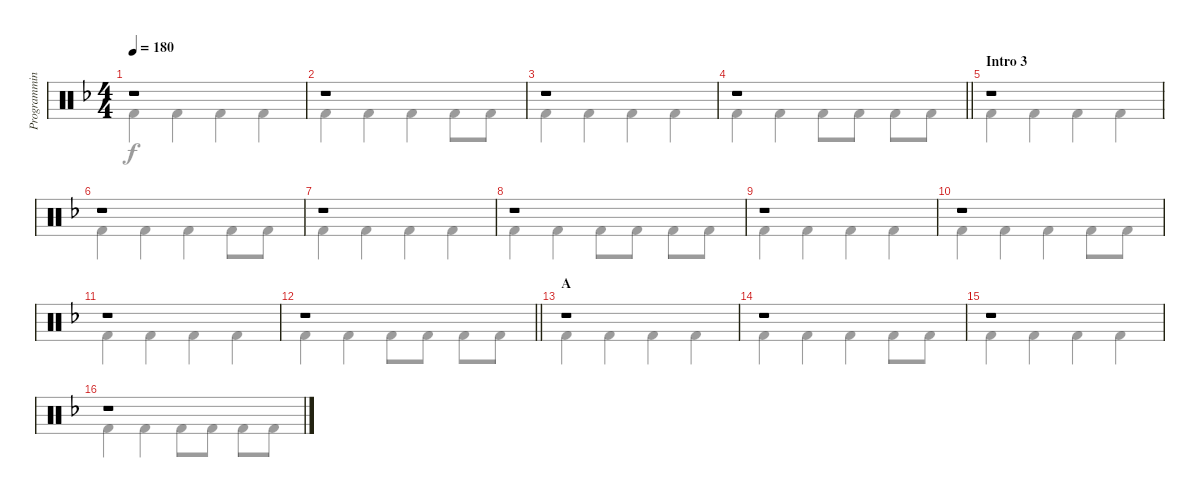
\track ("Programming" "Programmin") {instrument percussion}
\staff {score}
\articulation defaults
\voice
\ts (4 4)
\tempo 180
\clef neutral
\ks f
r.1{dy mp} |
r.1 |
r.1 |
\barLineRight lightlight
r.1 |
\section ("" "Intro 3")
r.1 |
r.1 |
r.1 |
r.1 |
r.1 |
r.1 |
r.1 |
\barLineRight lightlight
r.1 |
\section ("" "A")
r.1 |
r.1 |
r.1 |
r.1
\voice
\clef neutral
\ottava regular
\simile none
\ks f "Kick (hit) 2".4{dy f} "Kick (hit) 2".4 "Kick (hit) 2".4 "Kick (hit) 2".4
|
"Kick (hit) 2".4 "Kick (hit) 2".4 "Kick (hit) 2".4 "Kick (hit) 2".8 "Kick (hit) 2".8 |
"Kick (hit) 2".4 "Kick (hit) 2".4 "Kick (hit) 2".4 "Kick (hit) 2".4 |
\barLineRight lightlight "Kick (hit) 2".4 "Kick (hit) 2".4 "Kick (hit) 2".8 "Kick (hit) 2".8 "Kick (hit) 2".8 "Kick (hit) 2".8
|
"Kick (hit) 2".4 "Kick (hit) 2".4 "Kick (hit) 2".4 "Kick (hit) 2".4 |
"Kick (hit) 2".4 "Kick (hit) 2".4 "Kick (hit) 2".4 "Kick (hit) 2".8 "Kick (hit) 2".8 |
"Kick (hit) 2".4 "Kick (hit) 2".4 "Kick (hit) 2".4 "Kick (hit) 2".4 |
"Kick (hit) 2".4 "Kick (hit) 2".4 "Kick (hit) 2".8 "Kick (hit) 2".8 "Kick (hit) 2".8 "Kick (hit) 2".8 |
"Kick (hit) 2".4 "Kick (hit) 2".4 "Kick (hit) 2".4 "Kick (hit) 2".4 |
"Kick (hit) 2".4 "Kick (hit) 2".4 "Kick (hit) 2".4 "Kick (hit) 2".8 "Kick (hit) 2".8 |
"Kick (hit) 2".4 "Kick (hit) 2".4 "Kick (hit) 2".4 "Kick (hit) 2".4 |
\barLineRight lightlight "Kick (hit) 2".4 "Kick (hit) 2".4 "Kick (hit) 2".8 "Kick (hit) 2".8 "Kick (hit) 2".8 "Kick (hit) 2".8
|
"Kick (hit) 2".4 "Kick (hit) 2".4 "Kick (hit) 2".4 "Kick (hit) 2".4 |
"Kick (hit) 2".4 "Kick (hit) 2".4 "Kick (hit) 2".4 "Kick (hit) 2".8 "Kick (hit) 2".8 |
"Kick (hit) 2".4 "Kick (hit) 2".4 "Kick (hit) 2".4 "Kick (hit) 2".4 |
"Kick (hit) 2".4 "Kick (hit) 2".4 "Kick (hit) 2".8 "Kick (hit) 2".8 "Kick (hit) 2".8 "Kick (hit) 2".8
